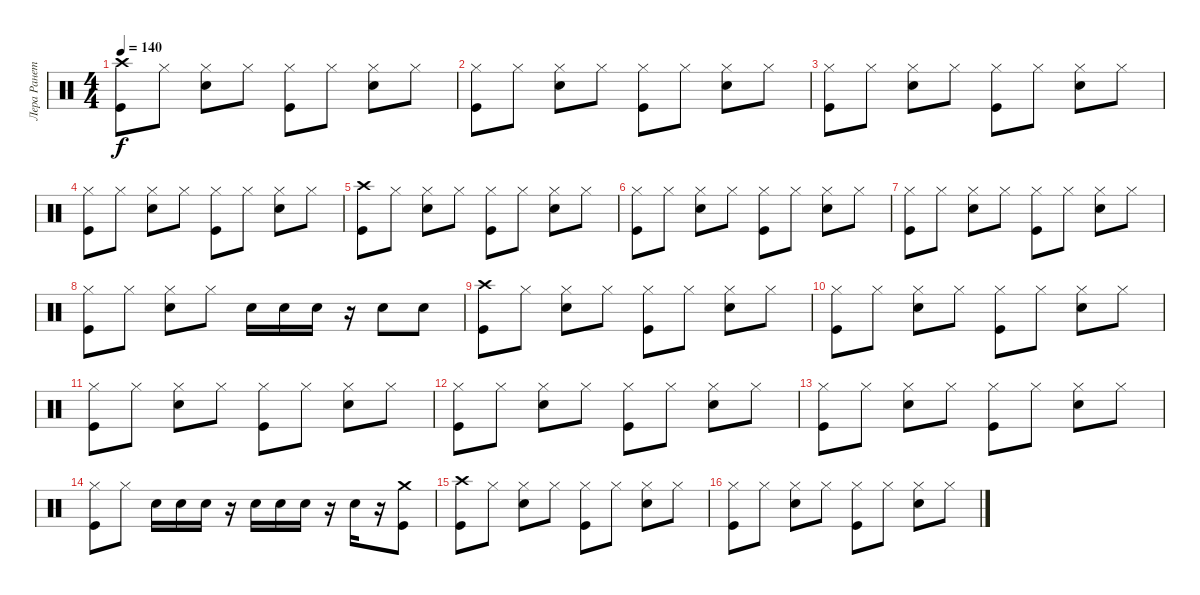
\track ("Лера Ранетка" "Лера Ранет") {instrument percussion}
\staff {score}
\articulation defaults
\ts (4 4)
\tempo 140
\clef neutral
\ks c
("Crash high (hit)" "Kick (hit)").8{dy f} "Hi-Hat (closed)".8 ("Hi-Hat (closed)" "Electric Snare (hit)").8 "Hi-Hat (closed)".8 ("Hi-Hat (closed)" "Kick (hit)").8 "Hi-Hat (closed)".8 ("Hi-Hat (closed)" "Electric Snare (hit)").8 "Hi-Hat (closed)".8 |
("Hi-Hat (closed)" "Kick (hit)").8 "Hi-Hat (closed)".8 ("Hi-Hat (closed)" "Electric Snare (hit)").8 "Hi-Hat (closed)".8 ("Hi-Hat (closed)" "Kick (hit)").8 "Hi-Hat (closed)".8 ("Hi-Hat (closed)" "Electric Snare (hit)").8 "Hi-Hat (closed)".8 |
("Hi-Hat (closed)" "Kick (hit)").8 "Hi-Hat (closed)".8 ("Hi-Hat (closed)" "Electric Snare (hit)").8 "Hi-Hat (closed)".8 ("Hi-Hat (closed)" "Kick (hit)").8 "Hi-Hat (closed)".8 ("Hi-Hat (closed)" "Electric Snare (hit)").8 "Hi-Hat (closed)".8 |
("Hi-Hat (closed)" "Kick (hit)").8 "Hi-Hat (closed)".8 ("Hi-Hat (closed)" "Electric Snare (hit)").8 "Hi-Hat (closed)".8 ("Hi-Hat (closed)" "Kick (hit)").8 "Hi-Hat (closed)".8 ("Hi-Hat (closed)" "Electric Snare (hit)").8 "Hi-Hat (closed)".8 |
("Crash high (hit)" "Kick (hit)").8 "Hi-Hat (closed)".8 ("Hi-Hat (closed)" "Electric Snare (hit)").8 "Hi-Hat (closed)".8 ("Hi-Hat (closed)" "Kick (hit)").8 "Hi-Hat (closed)".8 ("Hi-Hat (closed)" "Electric Snare (hit)").8 "Hi-Hat (closed)".8 |
("Hi-Hat (closed)" "Kick (hit)").8 "Hi-Hat (closed)".8 ("Hi-Hat (closed)" "Electric Snare (hit)").8 "Hi-Hat (closed)".8 ("Hi-Hat (closed)" "Kick (hit)").8 "Hi-Hat (closed)".8 ("Hi-Hat (closed)" "Electric Snare (hit)").8 "Hi-Hat (closed)".8 |
("Hi-Hat (closed)" "Kick (hit)").8 "Hi-Hat (closed)".8 ("Hi-Hat (closed)" "Electric Snare (hit)").8 "Hi-Hat (closed)".8 ("Hi-Hat (closed)" "Kick (hit)").8 "Hi-Hat (closed)".8 ("Hi-Hat (closed)" "Electric Snare (hit)").8 "Hi-Hat (closed)".8 |
("Hi-Hat (closed)" "Kick (hit)").8 "Hi-Hat (closed)".8 ("Hi-Hat (closed)" "Electric Snare (hit)").8 "Hi-Hat (closed)".8 "Electric Snare (hit)".16 "Electric Snare (hit)".16 "Electric Snare (hit)".16 r.16 "Electric Snare (hit)".8 "Electric Snare (hit)".8 |
("Crash high (hit)" "Kick (hit)").8 "Hi-Hat (closed)".8 ("Hi-Hat (closed)" "Electric Snare (hit)").8 "Hi-Hat (closed)".8 ("Hi-Hat (closed)" "Kick (hit)").8 "Hi-Hat (closed)".8 ("Hi-Hat (closed)" "Electric Snare (hit)").8 "Hi-Hat (closed)".8 |
("Hi-Hat (closed)" "Kick (hit)").8 "Hi-Hat (closed)".8 ("Hi-Hat (closed)" "Electric Snare (hit)").8 "Hi-Hat (closed)".8 ("Hi-Hat (closed)" "Kick (hit)").8 "Hi-Hat (closed)".8 ("Hi-Hat (closed)" "Electric Snare (hit)").8 "Hi-Hat (closed)".8 |
("Hi-Hat (closed)" "Kick (hit)").8 "Hi-Hat (closed)".8 ("Hi-Hat (closed)" "Electric Snare (hit)").8 "Hi-Hat (closed)".8 ("Hi-Hat (closed)" "Kick (hit)").8 "Hi-Hat (closed)".8 ("Hi-Hat (closed)" "Electric Snare (hit)").8 "Hi-Hat (closed)".8 |
("Hi-Hat (closed)" "Kick (hit)").8 "Hi-Hat (closed)".8 ("Hi-Hat (closed)" "Electric Snare (hit)").8 "Hi-Hat (closed)".8 ("Hi-Hat (closed)" "Kick (hit)").8 "Hi-Hat (closed)".8 ("Hi-Hat (closed)" "Electric Snare (hit)").8 "Hi-Hat (closed)".8 |
("Hi-Hat (closed)" "Kick (hit)").8 "Hi-Hat (closed)".8 ("Hi-Hat (closed)" "Electric Snare (hit)").8 "Hi-Hat (closed)".8 ("Hi-Hat (closed)" "Kick (hit)").8 "Hi-Hat (closed)".8 ("Hi-Hat (closed)" "Electric Snare (hit)").8 "Hi-Hat (closed)".8 |
("Hi-Hat (closed)" "Kick (hit)").8 "Hi-Hat (closed)".8 "Electric Snare (hit)".16 "Electric Snare (hit)".16 "Electric Snare (hit)".16 r.16 "Electric Snare (hit)".16 "Electric Snare (hit)".16 "Electric Snare (hit)".16 r.16 "Electric Snare (hit)".16 r.16 ("Crash medium (hit)" "Kick (hit)").8 |
("Crash high (hit)" "Kick (hit)").8 "Hi-Hat (closed)".8 ("Hi-Hat (closed)" "Electric Snare (hit)").8 "Hi-Hat (closed)".8 ("Hi-Hat (closed)" "Kick (hit)").8 "Hi-Hat (closed)".8 ("Hi-Hat (closed)" "Electric Snare (hit)").8 "Hi-Hat (closed)".8 |
("Hi-Hat (closed)" "Kick (hit)").8 "Hi-Hat (closed)".8 ("Hi-Hat (closed)" "Electric Snare (hit)").8 "Hi-Hat (closed)".8 ("Hi-Hat (closed)" "Kick (hit)").8 "Hi-Hat (closed)".8 ("Hi-Hat (closed)" "Electric Snare (hit)").8 "Hi-Hat (closed)".8
